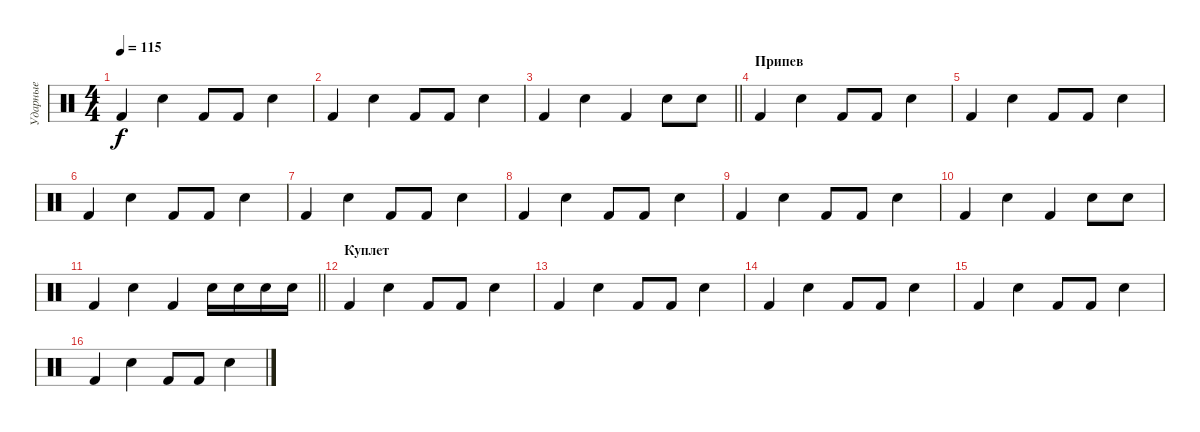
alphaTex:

\track ("Ударные" "Ударные") {instrument percussion}
\staff {score}
\articulation defaults
\ts (4 4)
\tempo 115
\clef neutral
\ks c "Kick (hit) 2".4{dy f} "Electric Snare (hit)".4 "Kick (hit) 2".8 "Kick (hit) 2".8 "Electric Snare (hit)".4
|
"Kick (hit) 2".4 "Electric Snare (hit)".4 "Kick (hit) 2".8 "Kick (hit) 2".8 "Electric Snare (hit)".4 |
\barLineRight lightlight "Kick (hit) 2".4 "Electric Snare (hit)".4 "Kick (hit) 2".4 "Electric Snare (hit)".8 "Electric Snare (hit)".8
|
\section ("" "Припев")
"Kick (hit) 2".4 "Electric Snare (hit)".4 "Kick (hit) 2".8 "Kick (hit) 2".8 "Electric Snare (hit)".4 |
"Kick (hit) 2".4 "Electric Snare (hit)".4 "Kick (hit) 2".8 "Kick (hit) 2".8 "Electric Snare (hit)".4 |
"Kick (hit) 2".4 "Electric Snare (hit)".4 "Kick (hit) 2".8 "Kick (hit) 2".8 "Electric Snare (hit)".4 |
"Kick (hit) 2".4 "Electric Snare (hit)".4 "Kick (hit) 2".8 "Kick (hit) 2".8 "Electric Snare (hit)".4 |
"Kick (hit) 2".4 "Electric Snare (hit)".4 "Kick (hit) 2".8 "Kick (hit) 2".8 "Electric Snare (hit)".4 |
"Kick (hit) 2".4 "Electric Snare (hit)".4 "Kick (hit) 2".8 "Kick (hit) 2".8 "Electric Snare (hit)".4 |
"Kick (hit) 2".4 "Electric Snare (hit)".4 "Kick (hit) 2".4 "Electric Snare (hit)".8 "Electric Snare (hit)".8 |
\barLineRight lightlight "Kick (hit) 2".4 "Electric Snare (hit)".4 "Kick (hit) 2".4 "Electric Snare (hit)".16 "Electric Snare (hit)".16 "Electric Snare (hit)".16 "Electric Snare (hit)".16
|
\section ("" "Куплет")
"Kick (hit) 2".4 "Electric Snare (hit)".4 "Kick (hit) 2".8 "Kick (hit) 2".8 "Electric Snare (hit)".4 |
"Kick (hit) 2".4 "Electric Snare (hit)".4 "Kick (hit) 2".8 "Kick (hit) 2".8 "Electric Snare (hit)".4 |
"Kick (hit) 2".4 "Electric Snare (hit)".4 "Kick (hit) 2".8 "Kick (hit) 2".8 "Electric Snare (hit)".4 |
"Kick (hit) 2".4 "Electric Snare (hit)".4 "Kick (hit) 2".8 "Kick (hit) 2".8 "Electric Snare (hit)".4 |
"Kick (hit) 2".4 "Electric Snare (hit)".4 "Kick (hit) 2".8 "Kick (hit) 2".8 "Electric Snare (hit)".4
